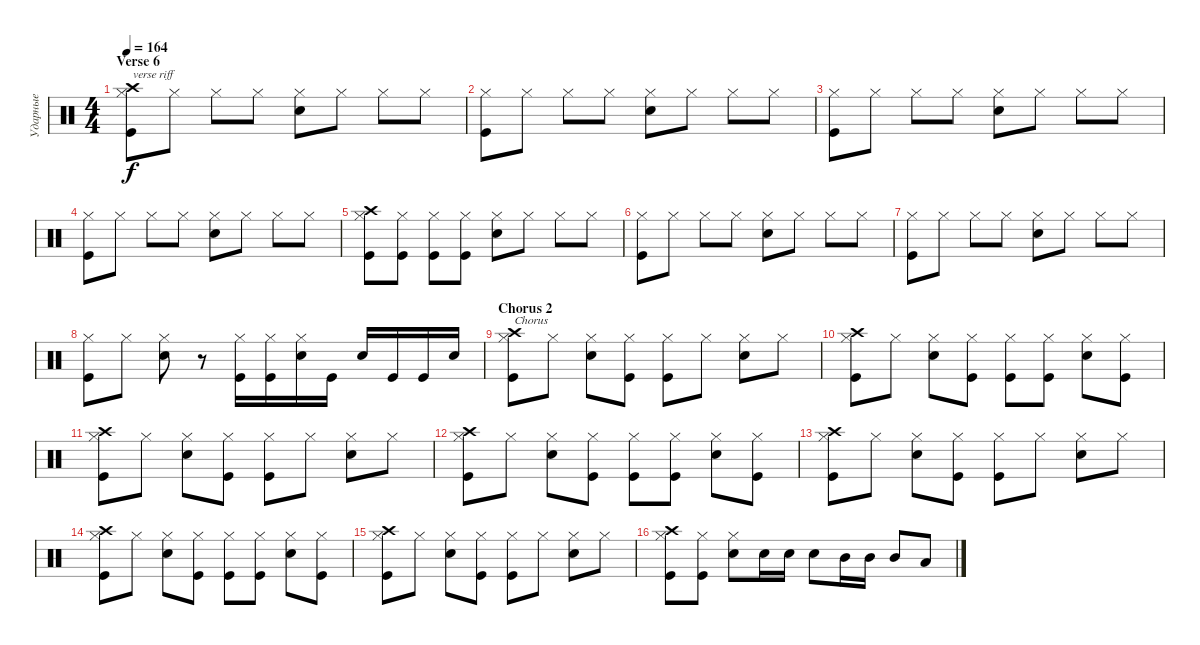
\track ("Ударные" "Ударные") {instrument percussion}
\staff {score}
\articulation defaults
\ts (4 4)
\section ("" "Verse 6")
\tempo 164
\clef neutral
\ks c
("Hi-Hat (closed)" "Crash high (hit)" "Kick (hit)").8{txt "verse riff" dy f} "Hi-Hat (closed)".8 "Hi-Hat (closed)".8 "Hi-Hat (closed)".8 ("Hi-Hat (closed)" "Snare (hit) 2").8 "Hi-Hat (closed)".8 "Hi-Hat (closed)".8 "Hi-Hat (closed)".8 |
("Hi-Hat (closed)" "Kick (hit)").8 "Hi-Hat (closed)".8 "Hi-Hat (closed)".8 "Hi-Hat (closed)".8 ("Hi-Hat (closed)" "Snare (hit) 2").8 "Hi-Hat (closed)".8 "Hi-Hat (closed)".8 "Hi-Hat (closed)".8 |
("Hi-Hat (closed)" "Kick (hit)").8 "Hi-Hat (closed)".8 "Hi-Hat (closed)".8 "Hi-Hat (closed)".8 ("Hi-Hat (closed)" "Snare (hit) 2").8 "Hi-Hat (closed)".8 "Hi-Hat (closed)".8 "Hi-Hat (closed)".8 |
("Hi-Hat (closed)" "Kick (hit)").8 "Hi-Hat (closed)".8 "Hi-Hat (closed)".8 "Hi-Hat (closed)".8 ("Hi-Hat (closed)" "Snare (hit) 2").8 "Hi-Hat (closed)".8 "Hi-Hat (closed)".8 "Hi-Hat (closed)".8 |
("Hi-Hat (closed)" "Crash high (hit)" "Kick (hit)").8 ("Hi-Hat (closed)" "Kick (hit)").8 ("Hi-Hat (closed)" "Kick (hit)").8 ("Hi-Hat (closed)" "Kick (hit)").8 ("Hi-Hat (closed)" "Snare (hit) 2").8 "Hi-Hat (closed)".8 "Hi-Hat (closed)".8 "Hi-Hat (closed)".8 |
("Hi-Hat (closed)" "Kick (hit)").8 "Hi-Hat (closed)".8 "Hi-Hat (closed)".8 "Hi-Hat (closed)".8 ("Hi-Hat (closed)" "Snare (hit) 2").8 "Hi-Hat (closed)".8 "Hi-Hat (closed)".8 "Hi-Hat (closed)".8 |
("Hi-Hat (closed)" "Kick (hit)").8 "Hi-Hat (closed)".8 "Hi-Hat (closed)".8 "Hi-Hat (closed)".8 ("Hi-Hat (closed)" "Snare (hit) 2").8 "Hi-Hat (closed)".8 "Hi-Hat (closed)".8 "Hi-Hat (closed)".8 |
("Hi-Hat (closed)" "Kick (hit)").8 "Hi-Hat (closed)".8 ("Hi-Hat (closed)" "Snare (hit) 2").8 r.8 ("Hi-Hat (closed)" "Kick (hit)").16 ("Hi-Hat (closed)" "Kick (hit)").16 ("Hi-Hat (closed)" "Snare (hit) 2").16 "Kick (hit)".16 "Snare (hit) 2".16 "Kick (hit)".16 "Kick (hit)".16 "Snare (hit) 2".16 |
\section ("" "Chorus 2")
("Hi-Hat (closed)" "Crash high (hit)" "Kick (hit)").8{txt "Chorus"} "Hi-Hat (closed)".8 ("Hi-Hat (closed)" "Snare (hit) 2").8 ("Hi-Hat (closed)" "Kick (hit)").8 ("Hi-Hat (closed)" "Kick (hit)").8 "Hi-Hat (closed)".8 ("Hi-Hat (closed)" "Snare (hit) 2").8 "Hi-Hat (closed)".8 |
("Hi-Hat (closed)" "Crash high (hit)" "Kick (hit)").8 "Hi-Hat (closed)".8 ("Hi-Hat (closed)" "Snare (hit) 2").8 ("Hi-Hat (closed)" "Kick (hit)").8 ("Hi-Hat (closed)" "Kick (hit)").8 ("Hi-Hat (closed)" "Kick (hit)").8 ("Hi-Hat (closed)" "Snare (hit) 2").8 ("Hi-Hat (closed)" "Kick (hit)").8 |
("Hi-Hat (closed)" "Crash high (hit)" "Kick (hit)").8 "Hi-Hat (closed)".8 ("Hi-Hat (closed)" "Snare (hit) 2").8 ("Hi-Hat (closed)" "Kick (hit)").8 ("Hi-Hat (closed)" "Kick (hit)").8 "Hi-Hat (closed)".8 ("Hi-Hat (closed)" "Snare (hit) 2").8 "Hi-Hat (closed)".8 |
("Hi-Hat (closed)" "Crash high (hit)" "Kick (hit)").8 "Hi-Hat (closed)".8 ("Hi-Hat (closed)" "Snare (hit) 2").8 ("Hi-Hat (closed)" "Kick (hit)").8 ("Hi-Hat (closed)" "Kick (hit)").8 ("Hi-Hat (closed)" "Kick (hit)").8 ("Hi-Hat (closed)" "Snare (hit) 2").8 ("Hi-Hat (closed)" "Kick (hit)").8 |
("Hi-Hat (closed)" "Crash high (hit)" "Kick (hit)").8 "Hi-Hat (closed)".8 ("Hi-Hat (closed)" "Snare (hit) 2").8 ("Hi-Hat (closed)" "Kick (hit)").8 ("Hi-Hat (closed)" "Kick (hit)").8 "Hi-Hat (closed)".8 ("Hi-Hat (closed)" "Snare (hit) 2").8 "Hi-Hat (closed)".8 |
("Hi-Hat (closed)" "Crash high (hit)" "Kick (hit)").8 "Hi-Hat (closed)".8 ("Hi-Hat (closed)" "Snare (hit) 2").8 ("Hi-Hat (closed)" "Kick (hit)").8 ("Hi-Hat (closed)" "Kick (hit)").8 ("Hi-Hat (closed)" "Kick (hit)").8 ("Hi-Hat (closed)" "Snare (hit) 2").8 ("Hi-Hat (closed)" "Kick (hit)").8 |
("Hi-Hat (closed)" "Crash high (hit)" "Kick (hit)").8 "Hi-Hat (closed)".8 ("Hi-Hat (closed)" "Snare (hit) 2").8 ("Hi-Hat (closed)" "Kick (hit)").8 ("Hi-Hat (closed)" "Kick (hit)").8 "Hi-Hat (closed)".8 ("Hi-Hat (closed)" "Snare (hit) 2").8 "Hi-Hat (closed)".8 |
("Hi-Hat (closed)" "Crash high (hit)" "Kick (hit)").8 ("Hi-Hat (closed)" "Kick (hit)").8 ("Hi-Hat (closed)" "Snare (hit) 2").8 "Snare (hit) 2".16 "Snare (hit) 2".16 "Snare (hit) 2".8 "Mid Tom (hit)".16 "Mid Tom (hit)".16 "Mid Tom (hit)".8 "Low Floor Tom (hit)".8
